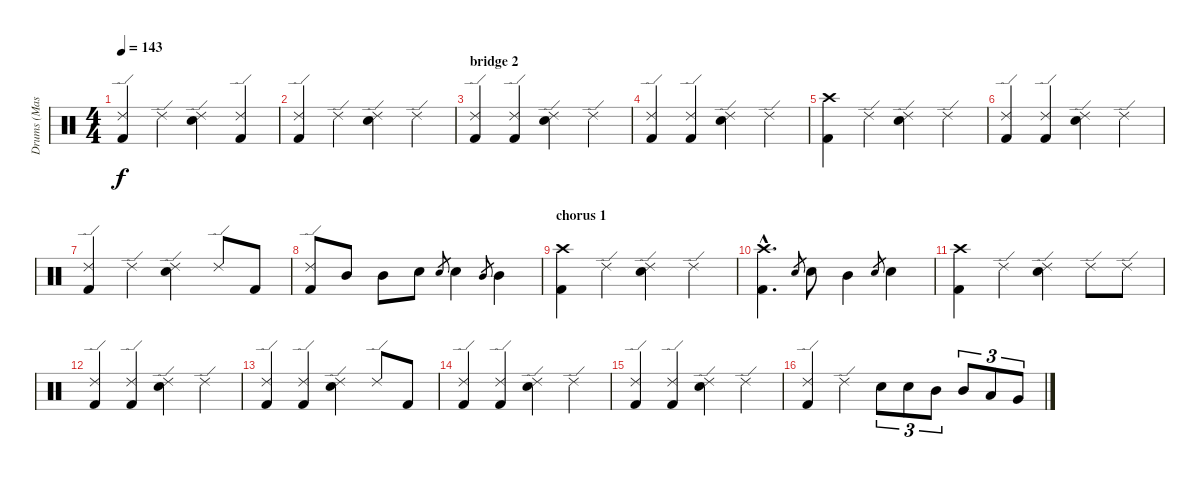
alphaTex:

\track ("Drums (Mason)" "Drums (Mas") {instrument percussion}
\staff {score}
\articulation defaults
\ts (4 4)
\tempo 143
\clef neutral
\ks c
("Ride (edge) 2" "Kick (hit) 2").4{dy f} "Ride (edge) 2".4 ("Ride (edge) 2" "Electric Snare (hit)").4 ("Ride (edge) 2" "Kick (hit) 2").4 |
("Ride (edge) 2" "Kick (hit) 2").4 "Ride (edge) 2".4 ("Ride (edge) 2" "Electric Snare (hit)").4 "Ride (edge) 2".4 |
\section ("" "bridge 2")
("Ride (edge) 2" "Kick (hit) 2").4 ("Ride (edge) 2" "Kick (hit) 2").4 ("Ride (edge) 2" "Electric Snare (hit)").4 "Ride (edge) 2".4 |
("Ride (edge) 2" "Kick (hit) 2").4 ("Ride (edge) 2" "Kick (hit) 2").4 ("Ride (edge) 2" "Electric Snare (hit)").4 "Ride (edge) 2".4 |
("Crash high (hit)" "Kick (hit) 2").4 "Ride (edge) 2".4 ("Ride (edge) 2" "Electric Snare (hit)").4 "Ride (edge) 2".4 |
("Ride (edge) 2" "Kick (hit) 2").4 ("Ride (edge) 2" "Kick (hit) 2").4 ("Ride (edge) 2" "Electric Snare (hit)").4 "Ride (edge) 2".4 |
("Ride (edge) 2" "Kick (hit) 2").4 "Ride (edge) 2".4 ("Ride (edge) 2" "Electric Snare (hit)").4 "Ride (edge) 2".8 "Kick (hit) 2".8 |
("Ride (edge) 2" "Kick (hit) 2").8 "Mid Tom (hit)".8 "Mid Tom (hit)".8 "Electric Snare (hit)".8 "Electric Snare (hit)".8{gr} "Electric Snare (hit)".4 "Mid Tom (hit)".8{gr} "Mid Tom (hit)".4 |
\section ("" "chorus 1")
("Crash high (hit)" "Kick (hit) 2").4 "Ride (edge) 2".4 ("Ride (edge) 2" "Electric Snare (hit)").4 "Ride (edge) 2".4 |
("Crash high (hit)"{hac} "Kick (hit) 2"{hac}).4{d} "Electric Snare (hit)".8{gr} "Electric Snare (hit)".8 "Mid Tom (hit)".4 "Electric Snare (hit)".8{gr} "Electric Snare (hit)".4 |
("Crash high (hit)" "Kick (hit) 2").4 "Ride (edge) 2".4 ("Ride (edge) 2" "Electric Snare (hit)").4 "Ride (edge) 2".8 "Ride (edge) 2".8 |
("Ride (edge) 2" "Kick (hit) 2").4 ("Ride (edge) 2" "Kick (hit) 2").4 ("Ride (edge) 2" "Electric Snare (hit)").4 "Ride (edge) 2".4 |
("Ride (edge) 2" "Kick (hit) 2").4 ("Ride (edge) 2" "Kick (hit) 2").4 ("Ride (edge) 2" "Electric Snare (hit)").4 "Ride (edge) 2".8 "Kick (hit) 2".8 |
("Ride (edge) 2" "Kick (hit) 2").4 ("Ride (edge) 2" "Kick (hit) 2").4 ("Ride (edge) 2" "Electric Snare (hit)").4 "Ride (edge) 2".4 |
("Ride (edge) 2" "Kick (hit) 2").4 ("Ride (edge) 2" "Kick (hit) 2").4 ("Ride (edge) 2" "Electric Snare (hit)").4 "Ride (edge) 2".4 |
("Ride (edge) 2" "Kick (hit) 2").4 "Ride (edge) 2".4 "Electric Snare (hit)".8{tu (3 2)} "Electric Snare (hit)".8{tu (3 2)} "Mid Tom (hit)".8{tu (3 2)} "Mid Tom (hit)".8{tu (3 2)} "Low Tom (hit)".8{tu (3 2)} "Very Low Tom (hit)".8{tu (3 2)}
